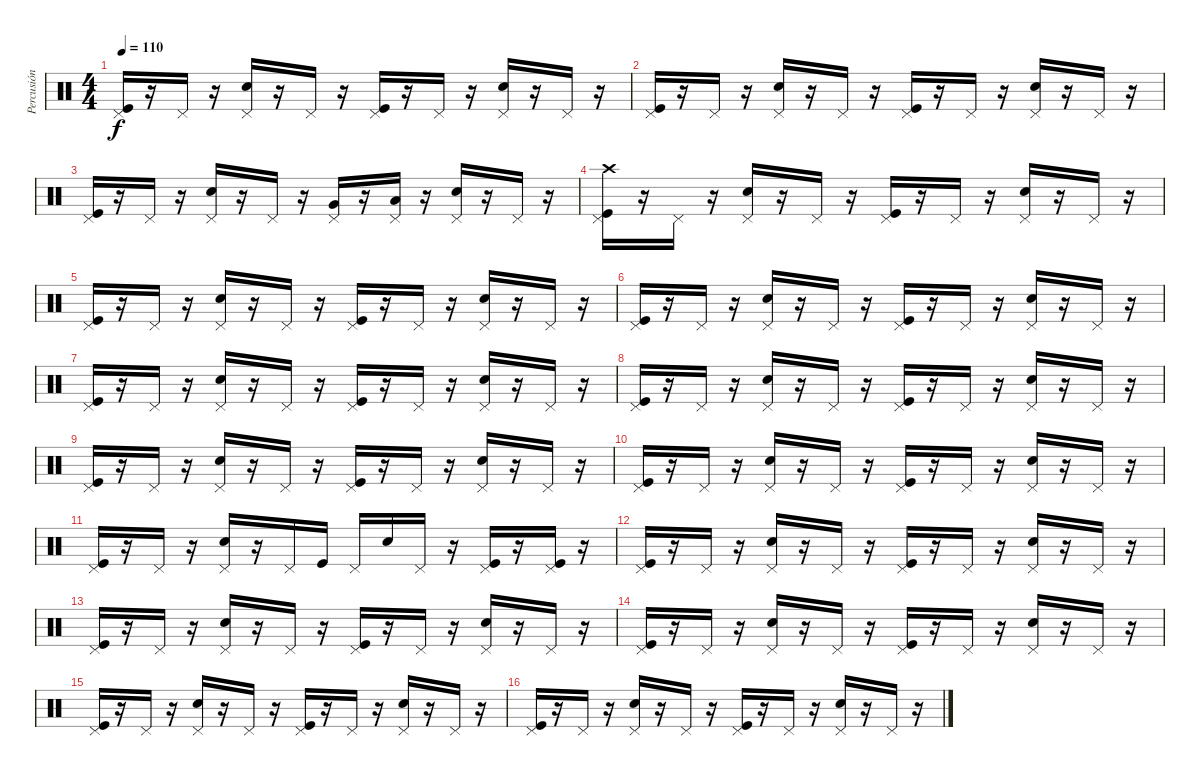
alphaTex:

\track ("Percusión" "Percusión") {instrument percussion}
\staff {score}
\articulation defaults
\ts (4 4)
\tempo 110
\clef neutral
\ks c
("Pedal Hi-Hat (hit)" "Kick (hit)").16{dy f} r.16 "Pedal Hi-Hat (hit)".16 r.16 ("Pedal Hi-Hat (hit)" "Electric Snare (hit)").16 r.16 "Pedal Hi-Hat (hit)".16 r.16 ("Pedal Hi-Hat (hit)" "Kick (hit)").16 r.16 "Pedal Hi-Hat (hit)".16 r.16 ("Pedal Hi-Hat (hit)" "Electric Snare (hit)").16 r.16 "Pedal Hi-Hat (hit)".16 r.16 |
("Pedal Hi-Hat (hit)" "Kick (hit)").16 r.16 "Pedal Hi-Hat (hit)".16 r.16 ("Pedal Hi-Hat (hit)" "Electric Snare (hit)").16 r.16 "Pedal Hi-Hat (hit)".16 r.16 ("Pedal Hi-Hat (hit)" "Kick (hit)").16 r.16 "Pedal Hi-Hat (hit)".16 r.16 ("Pedal Hi-Hat (hit)" "Electric Snare (hit)").16 r.16 "Pedal Hi-Hat (hit)".16 r.16 |
("Pedal Hi-Hat (hit)" "Kick (hit)").16 r.16 "Pedal Hi-Hat (hit)".16 r.16 ("Pedal Hi-Hat (hit)" "Electric Snare (hit)").16 r.16 "Pedal Hi-Hat (hit)".16 r.16 ("Pedal Hi-Hat (hit)" "Very Low Tom (hit)").16 r.16 ("Pedal Hi-Hat (hit)" "Low Tom (hit)").16 r.16 ("Pedal Hi-Hat (hit)" "Electric Snare (hit)").16 r.16 "Pedal Hi-Hat (hit)".16 r.16 |
("Pedal Hi-Hat (hit)" "Crash high (hit)" "Kick (hit)").16 r.16 "Pedal Hi-Hat (hit)".16 r.16 ("Pedal Hi-Hat (hit)" "Electric Snare (hit)").16 r.16 "Pedal Hi-Hat (hit)".16 r.16 ("Pedal Hi-Hat (hit)" "Kick (hit)").16 r.16 "Pedal Hi-Hat (hit)".16 r.16 ("Pedal Hi-Hat (hit)" "Electric Snare (hit)").16 r.16 "Pedal Hi-Hat (hit)".16 r.16 |
("Pedal Hi-Hat (hit)" "Kick (hit)").16 r.16 "Pedal Hi-Hat (hit)".16 r.16 ("Pedal Hi-Hat (hit)" "Electric Snare (hit)").16 r.16 "Pedal Hi-Hat (hit)".16 r.16 ("Pedal Hi-Hat (hit)" "Kick (hit)").16 r.16 "Pedal Hi-Hat (hit)".16 r.16 ("Pedal Hi-Hat (hit)" "Electric Snare (hit)").16 r.16 "Pedal Hi-Hat (hit)".16 r.16 |
("Pedal Hi-Hat (hit)" "Kick (hit)").16 r.16 "Pedal Hi-Hat (hit)".16 r.16 ("Pedal Hi-Hat (hit)" "Electric Snare (hit)").16 r.16 "Pedal Hi-Hat (hit)".16 r.16 ("Pedal Hi-Hat (hit)" "Kick (hit)").16 r.16 "Pedal Hi-Hat (hit)".16 r.16 ("Pedal Hi-Hat (hit)" "Electric Snare (hit)").16 r.16 "Pedal Hi-Hat (hit)".16 r.16 |
("Pedal Hi-Hat (hit)" "Kick (hit)").16 r.16 "Pedal Hi-Hat (hit)".16 r.16 ("Pedal Hi-Hat (hit)" "Electric Snare (hit)").16 r.16 "Pedal Hi-Hat (hit)".16 r.16 ("Pedal Hi-Hat (hit)" "Kick (hit)").16 r.16 "Pedal Hi-Hat (hit)".16 r.16 ("Pedal Hi-Hat (hit)" "Electric Snare (hit)").16 r.16 "Pedal Hi-Hat (hit)".16 r.16 |
("Pedal Hi-Hat (hit)" "Kick (hit)").16 r.16 "Pedal Hi-Hat (hit)".16 r.16 ("Pedal Hi-Hat (hit)" "Electric Snare (hit)").16 r.16 "Pedal Hi-Hat (hit)".16 r.16 ("Pedal Hi-Hat (hit)" "Kick (hit)").16 r.16 "Pedal Hi-Hat (hit)".16 r.16 ("Pedal Hi-Hat (hit)" "Electric Snare (hit)").16 r.16 "Pedal Hi-Hat (hit)".16 r.16 |
("Pedal Hi-Hat (hit)" "Kick (hit)").16 r.16 "Pedal Hi-Hat (hit)".16 r.16 ("Pedal Hi-Hat (hit)" "Electric Snare (hit)").16 r.16 "Pedal Hi-Hat (hit)".16 r.16 ("Pedal Hi-Hat (hit)" "Kick (hit)").16 r.16 "Pedal Hi-Hat (hit)".16 r.16 ("Pedal Hi-Hat (hit)" "Electric Snare (hit)").16 r.16 "Pedal Hi-Hat (hit)".16 r.16 |
("Pedal Hi-Hat (hit)" "Kick (hit)").16 r.16 "Pedal Hi-Hat (hit)".16 r.16 ("Pedal Hi-Hat (hit)" "Electric Snare (hit)").16 r.16 "Pedal Hi-Hat (hit)".16 r.16 ("Pedal Hi-Hat (hit)" "Kick (hit)").16 r.16 "Pedal Hi-Hat (hit)".16 r.16 ("Pedal Hi-Hat (hit)" "Electric Snare (hit)").16 r.16 "Pedal Hi-Hat (hit)".16 r.16 |
("Pedal Hi-Hat (hit)" "Kick (hit)").16 r.16 "Pedal Hi-Hat (hit)".16 r.16 ("Pedal Hi-Hat (hit)" "Electric Snare (hit)").16 r.16 "Pedal Hi-Hat (hit)".16 "Kick (hit)".16 "Pedal Hi-Hat (hit)".16 "Electric Snare (hit)".16 "Pedal Hi-Hat (hit)".16 r.16 ("Pedal Hi-Hat (hit)" "Kick (hit)").16 r.16 ("Pedal Hi-Hat (hit)" "Kick (hit)").16 r.16 |
("Pedal Hi-Hat (hit)" "Kick (hit)").16 r.16 "Pedal Hi-Hat (hit)".16 r.16 ("Pedal Hi-Hat (hit)" "Electric Snare (hit)").16 r.16 "Pedal Hi-Hat (hit)".16 r.16 ("Pedal Hi-Hat (hit)" "Kick (hit)").16 r.16 "Pedal Hi-Hat (hit)".16 r.16 ("Pedal Hi-Hat (hit)" "Electric Snare (hit)").16 r.16 "Pedal Hi-Hat (hit)".16 r.16 |
("Pedal Hi-Hat (hit)" "Kick (hit)").16 r.16 "Pedal Hi-Hat (hit)".16 r.16 ("Pedal Hi-Hat (hit)" "Electric Snare (hit)").16 r.16 "Pedal Hi-Hat (hit)".16 r.16 ("Pedal Hi-Hat (hit)" "Kick (hit)").16 r.16 "Pedal Hi-Hat (hit)".16 r.16 ("Pedal Hi-Hat (hit)" "Electric Snare (hit)").16 r.16 "Pedal Hi-Hat (hit)".16 r.16 |
("Pedal Hi-Hat (hit)" "Kick (hit)").16 r.16 "Pedal Hi-Hat (hit)".16 r.16 ("Pedal Hi-Hat (hit)" "Electric Snare (hit)").16 r.16 "Pedal Hi-Hat (hit)".16 r.16 ("Pedal Hi-Hat (hit)" "Kick (hit)").16 r.16 "Pedal Hi-Hat (hit)".16 r.16 ("Pedal Hi-Hat (hit)" "Electric Snare (hit)").16 r.16 "Pedal Hi-Hat (hit)".16 r.16 |
("Pedal Hi-Hat (hit)" "Kick (hit)").16 r.16 "Pedal Hi-Hat (hit)".16 r.16 ("Pedal Hi-Hat (hit)" "Electric Snare (hit)").16 r.16 "Pedal Hi-Hat (hit)".16 r.16 ("Pedal Hi-Hat (hit)" "Kick (hit)").16 r.16 "Pedal Hi-Hat (hit)".16 r.16 ("Pedal Hi-Hat (hit)" "Electric Snare (hit)").16 r.16 "Pedal Hi-Hat (hit)".16 r.16 |
("Pedal Hi-Hat (hit)" "Kick (hit)").16 r.16 "Pedal Hi-Hat (hit)".16 r.16 ("Pedal Hi-Hat (hit)" "Electric Snare (hit)").16 r.16 "Pedal Hi-Hat (hit)".16 r.16 ("Pedal Hi-Hat (hit)" "Kick (hit)").16 r.16 "Pedal Hi-Hat (hit)".16 r.16 ("Pedal Hi-Hat (hit)" "Electric Snare (hit)").16 r.16 "Pedal Hi-Hat (hit)".16 r.16
